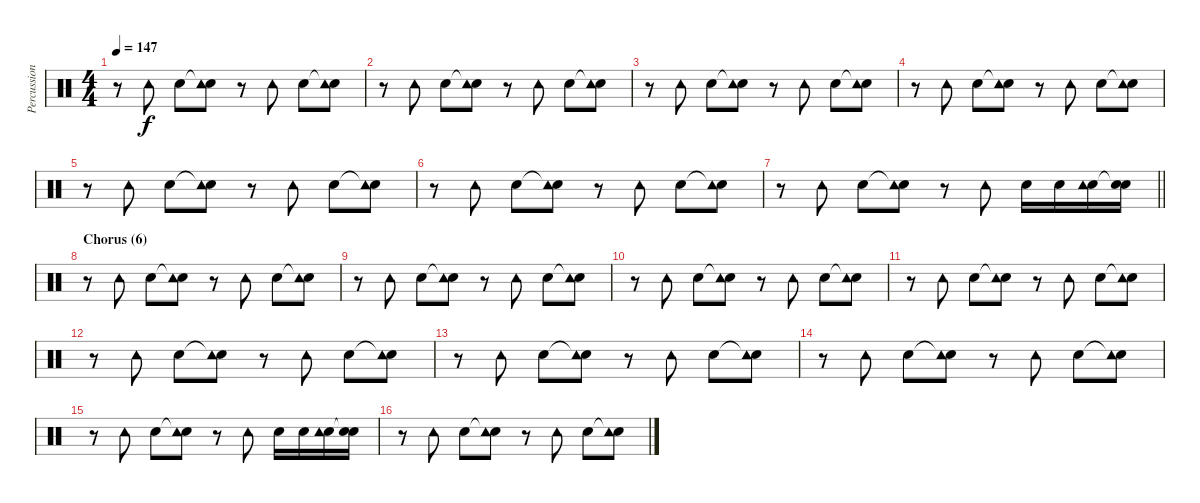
\track ("Percussion" "Percussion") {instrument percussion}
\staff {score}
\articulation defaults
\ts (4 4)
\tempo 147
\clef neutral
\ks aminor
r.8{dy f} "Tambourine (hit)".8 "Hand Clap (hit)".8 ("Snare (hit)"{t} "Tambourine (hit)").8 r.8 "Tambourine (hit)".8 "Hand Clap (hit)".8 ("Snare (hit)"{t} "Tambourine (hit)").8 |
r.8 "Tambourine (hit)".8 "Hand Clap (hit)".8 ("Snare (hit)"{t} "Tambourine (hit)").8 r.8 "Tambourine (hit)".8 "Hand Clap (hit)".8 ("Snare (hit)"{t} "Tambourine (hit)").8 |
r.8 "Tambourine (hit)".8 "Hand Clap (hit)".8 ("Snare (hit)"{t} "Tambourine (hit)").8 r.8 "Tambourine (hit)".8 "Hand Clap (hit)".8 ("Snare (hit)"{t} "Tambourine (hit)").8 |
r.8 "Tambourine (hit)".8 "Hand Clap (hit)".8 ("Snare (hit)"{t} "Tambourine (hit)").8 r.8 "Tambourine (hit)".8 "Hand Clap (hit)".8 ("Snare (hit)"{t} "Tambourine (hit)").8 |
r.8 "Tambourine (hit)".8 "Hand Clap (hit)".8 ("Snare (hit)"{t} "Tambourine (hit)").8 r.8 "Tambourine (hit)".8 "Hand Clap (hit)".8 ("Snare (hit)"{t} "Tambourine (hit)").8 |
r.8 "Tambourine (hit)".8 "Hand Clap (hit)".8 ("Snare (hit)"{t} "Tambourine (hit)").8 r.8 "Tambourine (hit)".8 "Hand Clap (hit)".8 ("Snare (hit)"{t} "Tambourine (hit)").8 |
\barLineRight lightlight
r.8 "Tambourine (hit)".8 "Hand Clap (hit)".8 ("Snare (hit)"{t} "Tambourine (hit)").8 r.8 "Tambourine (hit)".8 "Hand Clap (hit)".16 "Hand Clap (hit)".16 ("Hand Clap (hit)" "Tambourine (hit)").16 ("Hand Clap (hit)" "Snare (hit)"{t}).16 |
\section ("" "Chorus (6)")
r.8 "Tambourine (hit)".8 "Hand Clap (hit)".8 ("Snare (hit)"{t} "Tambourine (hit)").8 r.8 "Tambourine (hit)".8 "Hand Clap (hit)".8 ("Snare (hit)"{t} "Tambourine (hit)").8 |
r.8 "Tambourine (hit)".8 "Hand Clap (hit)".8 ("Snare (hit)"{t} "Tambourine (hit)").8 r.8 "Tambourine (hit)".8 "Hand Clap (hit)".8 ("Snare (hit)"{t} "Tambourine (hit)").8 |
r.8 "Tambourine (hit)".8 "Hand Clap (hit)".8 ("Snare (hit)"{t} "Tambourine (hit)").8 r.8 "Tambourine (hit)".8 "Hand Clap (hit)".8 ("Snare (hit)"{t} "Tambourine (hit)").8 |
r.8 "Tambourine (hit)".8 "Hand Clap (hit)".8 ("Snare (hit)"{t} "Tambourine (hit)").8 r.8 "Tambourine (hit)".8 "Hand Clap (hit)".8 ("Snare (hit)"{t} "Tambourine (hit)").8 |
r.8 "Tambourine (hit)".8 "Hand Clap (hit)".8 ("Snare (hit)"{t} "Tambourine (hit)").8 r.8 "Tambourine (hit)".8 "Hand Clap (hit)".8 ("Snare (hit)"{t} "Tambourine (hit)").8 |
r.8 "Tambourine (hit)".8 "Hand Clap (hit)".8 ("Snare (hit)"{t} "Tambourine (hit)").8 r.8 "Tambourine (hit)".8 "Hand Clap (hit)".8 ("Snare (hit)"{t} "Tambourine (hit)").8 |
r.8 "Tambourine (hit)".8 "Hand Clap (hit)".8 ("Snare (hit)"{t} "Tambourine (hit)").8 r.8 "Tambourine (hit)".8 "Hand Clap (hit)".8 ("Snare (hit)"{t} "Tambourine (hit)").8 |
r.8 "Tambourine (hit)".8 "Hand Clap (hit)".8 ("Snare (hit)"{t} "Tambourine (hit)").8 r.8 "Tambourine (hit)".8 "Hand Clap (hit)".16 "Hand Clap (hit)".16 ("Hand Clap (hit)" "Tambourine (hit)").16 ("Hand Clap (hit)" "Snare (hit)"{t}).16 |
r.8 "Tambourine (hit)".8 "Hand Clap (hit)".8 ("Snare (hit)"{t} "Tambourine (hit)").8 r.8 "Tambourine (hit)".8 "Hand Clap (hit)".8 ("Snare (hit)"{t} "Tambourine (hit)").8
